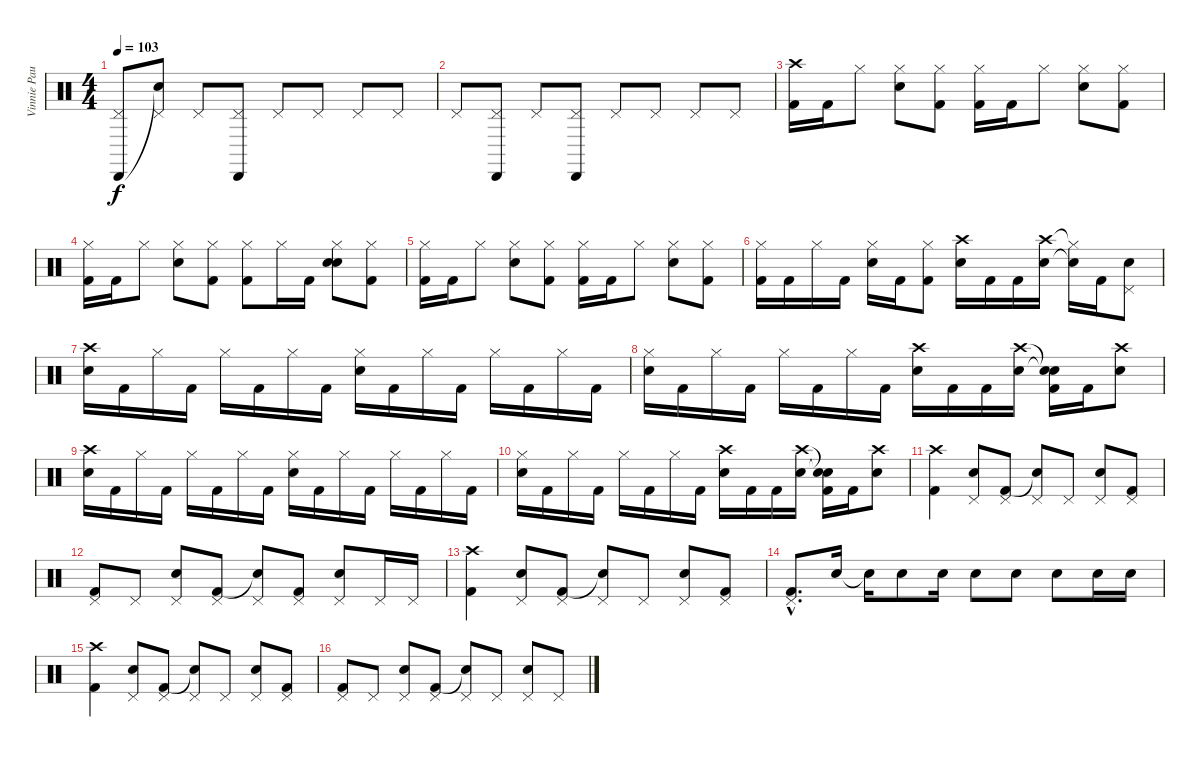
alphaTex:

\track ("Vinnie Paul" "Vinnie Pau") {instrument percussion}
\staff {score}
\articulation defaults
\ts (4 4)
\tempo 103
\clef neutral
\ks c
("Pedal Hi-Hat (hit)" "Cabasa (hit)").8{dy f} ("Pedal Hi-Hat (hit)" "Snare (hit)"{t}).8 "Pedal Hi-Hat (hit)".8 ("Pedal Hi-Hat (hit)" "Cabasa (hit)").8 "Pedal Hi-Hat (hit)".8 "Pedal Hi-Hat (hit)".8 "Pedal Hi-Hat (hit)".8 "Pedal Hi-Hat (hit)".8 |
"Pedal Hi-Hat (hit)".8 ("Pedal Hi-Hat (hit)" "Cabasa (hit)").8 "Pedal Hi-Hat (hit)".8 ("Pedal Hi-Hat (hit)" "Cabasa (hit)").8 "Pedal Hi-Hat (hit)".8 "Pedal Hi-Hat (hit)".8 "Pedal Hi-Hat (hit)".8 "Pedal Hi-Hat (hit)".8 |
("Crash high (hit)" "Kick (hit) 2").16 "Kick (hit) 2".16 "Hi-Hat (closed)".8 ("Hi-Hat (closed)" "Electric Snare (hit)").8 ("Hi-Hat (closed)" "Kick (hit) 2").8 ("Hi-Hat (closed)" "Kick (hit) 2").16 "Kick (hit) 2".16 "Hi-Hat (closed)".8 ("Hi-Hat (closed)" "Electric Snare (hit)").8 ("Hi-Hat (closed)" "Kick (hit) 2").8 |
("Hi-Hat (closed)" "Kick (hit) 2").16 "Kick (hit) 2".16 "Hi-Hat (closed)".8 ("Hi-Hat (closed)" "Electric Snare (hit)").8 ("Hi-Hat (closed)" "Kick (hit) 2").8 ("Hi-Hat (closed)" "Kick (hit) 2").8 "Hi-Hat (closed)".16 "Kick (hit) 2".16 ("Hi-Hat (closed)" "Electric Snare (hit)" "Snare (hit)").8 ("Hi-Hat (closed)" "Kick (hit) 2").8 |
("Hi-Hat (closed)" "Kick (hit) 2").16 "Kick (hit) 2".16 "Hi-Hat (closed)".8 ("Hi-Hat (closed)" "Electric Snare (hit)").8 ("Hi-Hat (closed)" "Kick (hit) 2").8 ("Hi-Hat (closed)" "Kick (hit) 2").16 "Kick (hit) 2".16 "Hi-Hat (closed)".8 ("Hi-Hat (closed)" "Electric Snare (hit)").8 ("Hi-Hat (closed)" "Kick (hit) 2").8 |
("Hi-Hat (closed)" "Kick (hit) 2").16 "Kick (hit) 2".16 "Hi-Hat (closed)".16 "Kick (hit) 2".16 ("Hi-Hat (closed)" "Electric Snare (hit)").16 "Kick (hit) 2".16 ("Hi-Hat (closed)" "Kick (hit) 2").8 ("Crash high (hit)" "Electric Snare (hit)").16 "Kick (hit) 2".16 "Kick (hit) 2".16 ("Crash high (hit)" "Electric Snare (hit)").16 ("Hi-Hat (closed)"{t} "Snare (hit)"{t}).16 "Kick (hit) 2".16 ("Pedal Hi-Hat (hit)" "Electric Snare (hit)").8 |
("Crash high (hit)" "Electric Snare (hit)").16 "Kick (hit) 2".16 "Hi-Hat (closed)".16 "Kick (hit) 2".16 "Hi-Hat (closed)".16 "Kick (hit) 2".16 "Hi-Hat (closed)".16 "Kick (hit) 2".16 ("Hi-Hat (closed)" "Electric Snare (hit)").16 "Kick (hit) 2".16 "Hi-Hat (closed)".16 "Kick (hit) 2".16 "Hi-Hat (closed)".16 "Kick (hit) 2".16 "Hi-Hat (closed)".16 "Kick (hit) 2".16 |
("Hi-Hat (closed)" "Electric Snare (hit)").16 "Kick (hit) 2".16 "Hi-Hat (closed)".16 "Kick (hit) 2".16 "Hi-Hat (closed)".16 "Kick (hit) 2".16 "Hi-Hat (closed)".16 "Kick (hit) 2".16 ("Crash high (hit)" "Electric Snare (hit)").16 "Kick (hit) 2".16 "Kick (hit) 2".16 ("Crash high (hit)" "Electric Snare (hit)").16 ("Snare (hit)"{t} "Snare (hit)"{t} "Kick (hit) 2").16 "Kick (hit) 2".16 ("Crash high (hit)" "Electric Snare (hit)").8 |
("Crash high (hit)" "Electric Snare (hit)").16 "Kick (hit) 2".16 "Hi-Hat (closed)".16 "Kick (hit) 2".16 "Hi-Hat (closed)".16 "Kick (hit) 2".16 "Hi-Hat (closed)".16 "Kick (hit) 2".16 ("Hi-Hat (closed)" "Electric Snare (hit)").16 "Kick (hit) 2".16 "Hi-Hat (closed)".16 "Kick (hit) 2".16 "Hi-Hat (closed)".16 "Kick (hit) 2".16 "Hi-Hat (closed)".16 "Kick (hit) 2".16 |
("Hi-Hat (closed)" "Electric Snare (hit)").16 "Kick (hit) 2".16 "Hi-Hat (closed)".16 "Kick (hit) 2".16 "Hi-Hat (closed)".16 "Kick (hit) 2".16 "Hi-Hat (closed)".16 "Kick (hit) 2".16 ("Crash high (hit)" "Electric Snare (hit)").16 "Kick (hit) 2".16 "Kick (hit) 2".16 ("Crash high (hit)" "Electric Snare (hit)").16 ("Snare (hit)"{t} "Snare (hit)"{t} "Kick (hit) 2").16 "Kick (hit) 2".16 ("Crash high (hit)" "Electric Snare (hit)").8 |
("Crash high (hit)" "Kick (hit) 2").4 ("Pedal Hi-Hat (hit)" "Electric Snare (hit)").8 ("Pedal Hi-Hat (hit)" "Kick (hit) 2").8 ("Pedal Hi-Hat (hit)" "Snare (hit)"{t}).8 "Pedal Hi-Hat (hit)".8 ("Pedal Hi-Hat (hit)" "Electric Snare (hit)").8 ("Pedal Hi-Hat (hit)" "Kick (hit) 2").8 |
("Pedal Hi-Hat (hit)" "Kick (hit) 2").8 "Pedal Hi-Hat (hit)".8 ("Pedal Hi-Hat (hit)" "Electric Snare (hit)").8 ("Pedal Hi-Hat (hit)" "Kick (hit) 2").8 ("Pedal Hi-Hat (hit)" "Snare (hit)"{t}).8 ("Pedal Hi-Hat (hit)" "Kick (hit) 2").8 ("Pedal Hi-Hat (hit)" "Electric Snare (hit)").8 "Pedal Hi-Hat (hit)".16 "Pedal Hi-Hat (hit)".16 |
("Crash high (hit)" "Kick (hit) 2").4 ("Pedal Hi-Hat (hit)" "Electric Snare (hit)").8 ("Pedal Hi-Hat (hit)" "Kick (hit) 2").8 ("Pedal Hi-Hat (hit)" "Snare (hit)"{t}).8 "Pedal Hi-Hat (hit)".8 ("Pedal Hi-Hat (hit)" "Electric Snare (hit)").8 ("Pedal Hi-Hat (hit)" "Kick (hit) 2").8 |
("Pedal Hi-Hat (hit)"{hac} "Kick (hit) 2"{hac}).8{d} "Electric Snare (hit)".16 "Snare (hit)"{t}.16 "Electric Snare (hit)".8 "Electric Snare (hit)".16 "Electric Snare (hit)".8 "Electric Snare (hit)".8 "Electric Snare (hit)".8 "Electric Snare (hit)".16 "Electric Snare (hit)".16 |
("Crash high (hit)" "Kick (hit) 2").4 ("Pedal Hi-Hat (hit)" "Electric Snare (hit)").8 ("Pedal Hi-Hat (hit)" "Kick (hit) 2").8 ("Pedal Hi-Hat (hit)" "Snare (hit)"{t}).8 "Pedal Hi-Hat (hit)".8 ("Pedal Hi-Hat (hit)" "Electric Snare (hit)").8 ("Pedal Hi-Hat (hit)" "Kick (hit) 2").8 |
("Pedal Hi-Hat (hit)" "Kick (hit) 2").8 "Pedal Hi-Hat (hit)".8 ("Pedal Hi-Hat (hit)" "Electric Snare (hit)").8 ("Pedal Hi-Hat (hit)" "Kick (hit) 2").8 ("Pedal Hi-Hat (hit)" "Snare (hit)"{t}).8 "Pedal Hi-Hat (hit)".8 ("Pedal Hi-Hat (hit)" "Electric Snare (hit)").8 "Pedal Hi-Hat (hit)".8
